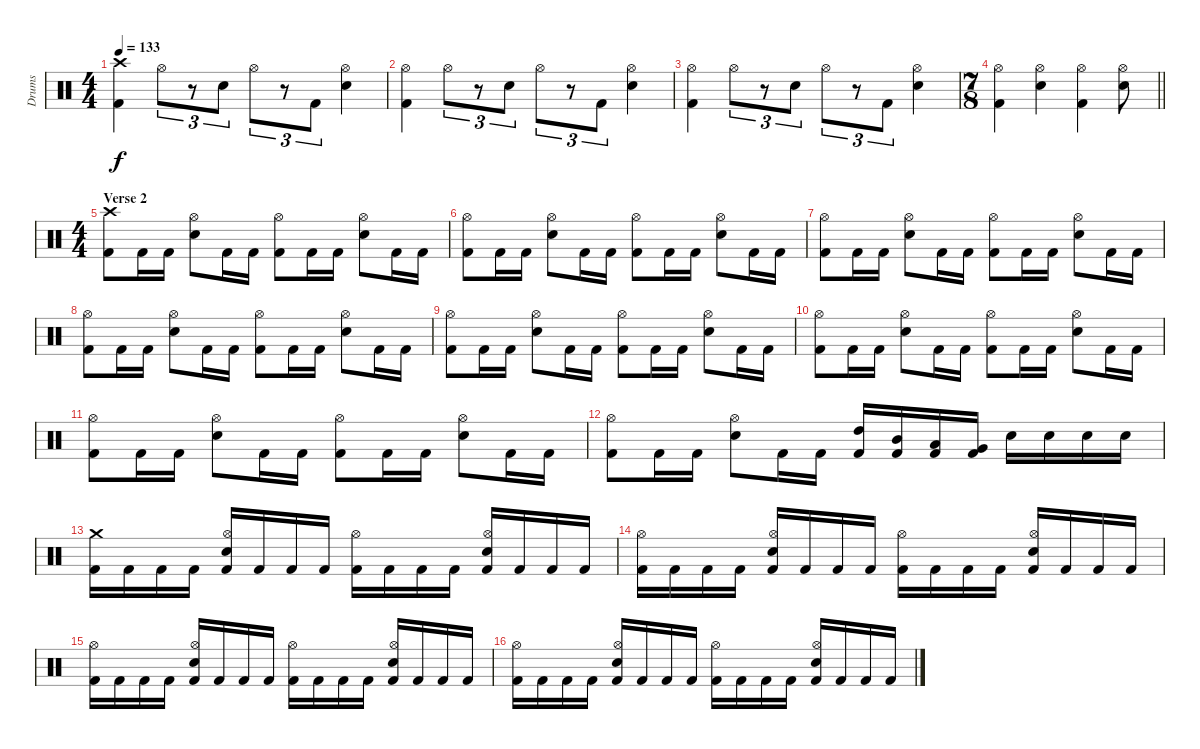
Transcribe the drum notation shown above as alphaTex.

\track ("Drums" "Drums") {instrument percussion}
\staff {score}
\articulation defaults
\ts (4 4)
\tempo 133
\clef neutral
\ks aminor
("Crash high (hit)" "Kick (hit) 2").4{dy f} "Hi-Hat (open)".8{tu (3 2)} r.8{tu (3 2)} "Electric Snare (hit)".8{tu (3 2)} "Hi-Hat (open)".8{tu (3 2)} r.8{tu (3 2)} "Kick (hit) 2".8{tu (3 2)} ("Hi-Hat (open)" "Electric Snare (hit)").4 |
("Hi-Hat (open)" "Kick (hit) 2").4 "Hi-Hat (open)".8{tu (3 2)} r.8{tu (3 2)} "Electric Snare (hit)".8{tu (3 2)} "Hi-Hat (open)".8{tu (3 2)} r.8{tu (3 2)} "Kick (hit) 2".8{tu (3 2)} ("Hi-Hat (open)" "Electric Snare (hit)").4 |
("Hi-Hat (open)" "Kick (hit) 2").4 "Hi-Hat (open)".8{tu (3 2)} r.8{tu (3 2)} "Electric Snare (hit)".8{tu (3 2)} "Hi-Hat (open)".8{tu (3 2)} r.8{tu (3 2)} "Kick (hit) 2".8{tu (3 2)} ("Hi-Hat (open)" "Electric Snare (hit)").4 |
\ts (7 8)
\barLineRight lightlight
("Hi-Hat (open)" "Kick (hit) 2").4 ("Hi-Hat (open)" "Electric Snare (hit)").4 ("Hi-Hat (open)" "Kick (hit) 2").4 ("Hi-Hat (open)" "Electric Snare (hit)").8 |
\ts (4 4)
\section ("" "Verse 2")
("Crash high (hit)" "Kick (hit) 2").8 "Kick (hit) 2".16 "Kick (hit) 2".16 ("Hi-Hat (open)" "Electric Snare (hit)").8 "Kick (hit) 2".16 "Kick (hit) 2".16 ("Hi-Hat (open)" "Kick (hit) 2").8 "Kick (hit) 2".16 "Kick (hit) 2".16 ("Hi-Hat (open)" "Electric Snare (hit)").8 "Kick (hit) 2".16 "Kick (hit) 2".16 |
("Hi-Hat (open)" "Kick (hit) 2").8 "Kick (hit) 2".16 "Kick (hit) 2".16 ("Hi-Hat (open)" "Electric Snare (hit)").8 "Kick (hit) 2".16 "Kick (hit) 2".16 ("Hi-Hat (open)" "Kick (hit) 2").8 "Kick (hit) 2".16 "Kick (hit) 2".16 ("Hi-Hat (open)" "Electric Snare (hit)").8 "Kick (hit) 2".16 "Kick (hit) 2".16 |
("Hi-Hat (open)" "Kick (hit) 2").8 "Kick (hit) 2".16 "Kick (hit) 2".16 ("Hi-Hat (open)" "Electric Snare (hit)").8 "Kick (hit) 2".16 "Kick (hit) 2".16 ("Hi-Hat (open)" "Kick (hit) 2").8 "Kick (hit) 2".16 "Kick (hit) 2".16 ("Hi-Hat (open)" "Electric Snare (hit)").8 "Kick (hit) 2".16 "Kick (hit) 2".16 |
("Hi-Hat (open)" "Kick (hit) 2").8 "Kick (hit) 2".16 "Kick (hit) 2".16 ("Hi-Hat (open)" "Electric Snare (hit)").8 "Kick (hit) 2".16 "Kick (hit) 2".16 ("Hi-Hat (open)" "Kick (hit) 2").8 "Kick (hit) 2".16 "Kick (hit) 2".16 ("Hi-Hat (open)" "Electric Snare (hit)").8 "Kick (hit) 2".16 "Kick (hit) 2".16 |
("Hi-Hat (open)" "Kick (hit) 2").8 "Kick (hit) 2".16 "Kick (hit) 2".16 ("Hi-Hat (open)" "Electric Snare (hit)").8 "Kick (hit) 2".16 "Kick (hit) 2".16 ("Hi-Hat (open)" "Kick (hit) 2").8 "Kick (hit) 2".16 "Kick (hit) 2".16 ("Hi-Hat (open)" "Electric Snare (hit)").8 "Kick (hit) 2".16 "Kick (hit) 2".16 |
("Hi-Hat (open)" "Kick (hit) 2").8 "Kick (hit) 2".16 "Kick (hit) 2".16 ("Hi-Hat (open)" "Electric Snare (hit)").8 "Kick (hit) 2".16 "Kick (hit) 2".16 ("Hi-Hat (open)" "Kick (hit) 2").8 "Kick (hit) 2".16 "Kick (hit) 2".16 ("Hi-Hat (open)" "Electric Snare (hit)").8 "Kick (hit) 2".16 "Kick (hit) 2".16 |
("Hi-Hat (open)" "Kick (hit) 2").8 "Kick (hit) 2".16 "Kick (hit) 2".16 ("Hi-Hat (open)" "Electric Snare (hit)").8 "Kick (hit) 2".16 "Kick (hit) 2".16 ("Hi-Hat (open)" "Kick (hit) 2").8 "Kick (hit) 2".16 "Kick (hit) 2".16 ("Hi-Hat (open)" "Electric Snare (hit)").8 "Kick (hit) 2".16 "Kick (hit) 2".16 |
("Hi-Hat (open)" "Kick (hit) 2").8 "Kick (hit) 2".16 "Kick (hit) 2".16 ("Hi-Hat (open)" "Electric Snare (hit)").8 "Kick (hit) 2".16 "Kick (hit) 2".16 ("High Tom (hit)" "Kick (hit) 2").16 ("Mid Tom (hit)" "Kick (hit) 2").16 ("Low Tom (hit)" "Kick (hit) 2").16 ("Very Low Tom (hit)" "Kick (hit) 2").16 "Electric Snare (hit)".16 "Electric Snare (hit)".16 "Electric Snare (hit)".16 "Electric Snare (hit)".16 |
("Crash medium (hit)" "Kick (hit) 2").16 "Kick (hit) 2".16 "Kick (hit) 2".16 "Kick (hit) 2".16 ("Hi-Hat (open)" "Electric Snare (hit)" "Kick (hit) 2").16 "Kick (hit) 2".16 "Kick (hit) 2".16 "Kick (hit) 2".16 ("Hi-Hat (open)" "Kick (hit) 2").16 "Kick (hit) 2".16 "Kick (hit) 2".16 "Kick (hit) 2".16 ("Hi-Hat (open)" "Electric Snare (hit)" "Kick (hit) 2").16 "Kick (hit) 2".16 "Kick (hit) 2".16 "Kick (hit) 2".16 |
("Hi-Hat (open)" "Kick (hit) 2").16 "Kick (hit) 2".16 "Kick (hit) 2".16 "Kick (hit) 2".16 ("Hi-Hat (open)" "Electric Snare (hit)" "Kick (hit) 2").16 "Kick (hit) 2".16 "Kick (hit) 2".16 "Kick (hit) 2".16 ("Hi-Hat (open)" "Kick (hit) 2").16 "Kick (hit) 2".16 "Kick (hit) 2".16 "Kick (hit) 2".16 ("Hi-Hat (open)" "Electric Snare (hit)" "Kick (hit) 2").16 "Kick (hit) 2".16 "Kick (hit) 2".16 "Kick (hit) 2".16 |
("Hi-Hat (open)" "Kick (hit) 2").16 "Kick (hit) 2".16 "Kick (hit) 2".16 "Kick (hit) 2".16 ("Hi-Hat (open)" "Electric Snare (hit)" "Kick (hit) 2").16 "Kick (hit) 2".16 "Kick (hit) 2".16 "Kick (hit) 2".16 ("Hi-Hat (open)" "Kick (hit) 2").16 "Kick (hit) 2".16 "Kick (hit) 2".16 "Kick (hit) 2".16 ("Hi-Hat (open)" "Electric Snare (hit)" "Kick (hit) 2").16 "Kick (hit) 2".16 "Kick (hit) 2".16 "Kick (hit) 2".16 |
("Hi-Hat (open)" "Kick (hit) 2").16 "Kick (hit) 2".16 "Kick (hit) 2".16 "Kick (hit) 2".16 ("Hi-Hat (open)" "Electric Snare (hit)" "Kick (hit) 2").16 "Kick (hit) 2".16 "Kick (hit) 2".16 "Kick (hit) 2".16 ("Hi-Hat (open)" "Kick (hit) 2").16 "Kick (hit) 2".16 "Kick (hit) 2".16 "Kick (hit) 2".16 ("Hi-Hat (open)" "Electric Snare (hit)" "Kick (hit) 2").16 "Kick (hit) 2".16 "Kick (hit) 2".16 "Kick (hit) 2".16
